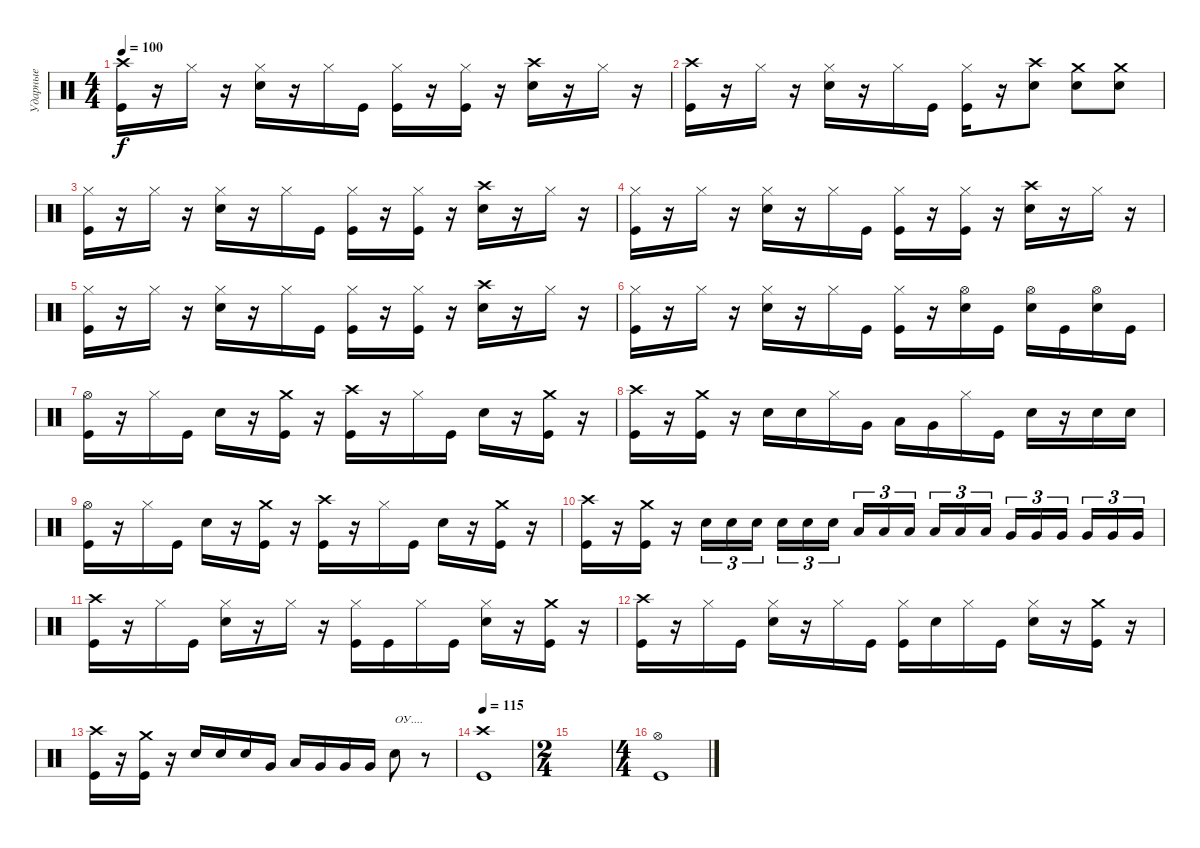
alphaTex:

\track ("Ударные" "Ударные") {instrument percussion}
\staff {score}
\articulation defaults
\ts (4 4)
\tempo 100
\clef neutral
\ks c
("Crash high (hit)" "Kick (hit)").16{dy f} r.16 "Hi-Hat (closed)".16 r.16 ("Hi-Hat (closed)" "Snare (hit) 2").16 r.16 "Hi-Hat (closed)".16 "Kick (hit)".16 ("Hi-Hat (closed)" "Kick (hit)").16 r.16 ("Hi-Hat (closed)" "Kick (hit)").16 r.16 ("Crash high (hit)" "Snare (hit) 2").16 r.16 "Hi-Hat (closed)".16 r.16 |
("Crash high (hit)" "Kick (hit)").16 r.16 "Hi-Hat (closed)".16 r.16 ("Hi-Hat (closed)" "Snare (hit) 2").16 r.16 "Hi-Hat (closed)".16 "Kick (hit)".16 ("Hi-Hat (closed)" "Kick (hit)").16 r.16 ("Crash high (hit)" "Snare (hit) 2").8 ("Crash medium (hit)" "Snare (hit) 2").8 ("Crash medium (hit)" "Snare (hit) 2").8 |
("Hi-Hat (closed)" "Kick (hit)").16 r.16 "Hi-Hat (closed)".16 r.16 ("Hi-Hat (closed)" "Snare (hit) 2").16 r.16 "Hi-Hat (closed)".16 "Kick (hit)".16 ("Hi-Hat (closed)" "Kick (hit)").16 r.16 ("Hi-Hat (closed)" "Kick (hit)").16 r.16 ("Crash high (hit)" "Snare (hit) 2").16 r.16 "Hi-Hat (closed)".16 r.16 |
("Hi-Hat (closed)" "Kick (hit)").16 r.16 "Hi-Hat (closed)".16 r.16 ("Hi-Hat (closed)" "Snare (hit) 2").16 r.16 "Hi-Hat (closed)".16 "Kick (hit)".16 ("Hi-Hat (closed)" "Kick (hit)").16 r.16 ("Hi-Hat (closed)" "Kick (hit)").16 r.16 ("Crash high (hit)" "Snare (hit) 2").16 r.16 "Hi-Hat (closed)".16 r.16 |
("Hi-Hat (closed)" "Kick (hit)").16 r.16 "Hi-Hat (closed)".16 r.16 ("Hi-Hat (closed)" "Snare (hit) 2").16 r.16 "Hi-Hat (closed)".16 "Kick (hit)".16 ("Hi-Hat (closed)" "Kick (hit)").16 r.16 ("Hi-Hat (closed)" "Kick (hit)").16 r.16 ("Crash high (hit)" "Snare (hit) 2").16 r.16 "Hi-Hat (closed)".16 r.16 |
("Hi-Hat (closed)" "Kick (hit)").16 r.16 "Hi-Hat (closed)".16 r.16 ("Hi-Hat (closed)" "Snare (hit) 2").16 r.16 "Hi-Hat (closed)".16 "Kick (hit)".16 ("Hi-Hat (closed)" "Kick (hit)").16 r.16 ("Hi-Hat (open)" "Snare (hit) 2").16 "Kick (hit)".16 ("Hi-Hat (open)" "Snare (hit) 2").16 "Kick (hit)".16 ("Hi-Hat (open)" "Snare (hit) 2").16 "Kick (hit)".16 |
("Hi-Hat (open)" "Kick (hit)").16 r.16 "Hi-Hat (closed)".16 "Kick (hit)".16 "Snare (hit) 2".16 r.16 ("Crash medium (hit)" "Kick (hit)").16 r.16 ("Crash high (hit)" "Kick (hit)").16 r.16 "Hi-Hat (closed)".16 "Kick (hit)".16 "Snare (hit) 2".16 r.16 ("Crash medium (hit)" "Kick (hit)").16 r.16 |
("Crash high (hit)" "Kick (hit)").16 r.16 ("Crash medium (hit)" "Kick (hit)").16 r.16 "Snare (hit) 2".16 "Snare (hit) 2".16 "Hi-Hat (closed)".16 "Very Low Tom (hit)".16 "Low Tom (hit)".16 "Very Low Tom (hit)".16 "Hi-Hat (closed)".16 "Kick (hit)".16 "Snare (hit) 2".16 r.16 "Snare (hit) 2".16 "Snare (hit) 2".16 |
("Hi-Hat (open)" "Kick (hit)").16 r.16 "Hi-Hat (closed)".16 "Kick (hit)".16 "Snare (hit) 2".16 r.16 ("Crash medium (hit)" "Kick (hit)").16 r.16 ("Crash high (hit)" "Kick (hit)").16 r.16 "Hi-Hat (closed)".16 "Kick (hit)".16 "Snare (hit) 2".16 r.16 ("Crash medium (hit)" "Kick (hit)").16 r.16 |
("Crash high (hit)" "Kick (hit)").16 r.16 ("Crash medium (hit)" "Kick (hit)").16 r.16 "Snare (hit) 2".16{tu (3 2)} "Snare (hit) 2".16{tu (3 2)} "Snare (hit) 2".16{tu (3 2) beam splitsecondary} "Snare (hit) 2".16{tu (3 2)} "Snare (hit) 2".16{tu (3 2)} "Snare (hit) 2".16{tu (3 2)} "Low Tom (hit)".16{tu (3 2)} "Low Tom (hit)".16{tu (3 2)} "Low Tom (hit)".16{tu (3 2) beam splitsecondary} "Low Tom (hit)".16{tu (3 2)} "Low Tom (hit)".16{tu (3 2)} "Low Tom (hit)".16{tu (3 2)} "Very Low Tom (hit)".16{tu (3 2)} "Very Low Tom (hit)".16{tu (3 2)} "Very Low Tom (hit)".16{tu (3 2) beam splitsecondary} "Very Low Tom (hit)".16{tu (3 2)} "Very Low Tom (hit)".16{tu (3 2)} "Very Low Tom (hit)".16{tu (3 2)} |
("Crash high (hit)" "Kick (hit)").16 r.16 "Hi-Hat (closed)".16 "Kick (hit)".16 ("Hi-Hat (closed)" "Snare (hit) 2").16 r.16 "Hi-Hat (closed)".16 r.16 ("Hi-Hat (closed)" "Kick (hit)").16 "Kick (hit)".16 "Hi-Hat (closed)".16 "Kick (hit)".16 ("Hi-Hat (closed)" "Snare (hit) 2").16 r.16 ("Crash medium (hit)" "Kick (hit)").16 r.16 |
("Crash high (hit)" "Kick (hit)").16 r.16 "Hi-Hat (closed)".16 "Kick (hit)".16 ("Hi-Hat (closed)" "Snare (hit) 2").16 r.16 "Hi-Hat (closed)".16 "Kick (hit)".16 ("Hi-Hat (closed)" "Kick (hit)").16 "Snare (hit) 2".16 "Hi-Hat (closed)".16 "Kick (hit)".16 ("Hi-Hat (closed)" "Snare (hit) 2").16 r.16 ("Crash medium (hit)" "Kick (hit)").16 r.16 |
("Crash high (hit)" "Kick (hit)").16 r.16 ("Crash medium (hit)" "Kick (hit)").16 r.16 "Snare (hit) 2".16 "Snare (hit) 2".16 "Snare (hit) 2".16 "Very Low Tom (hit)".16 "Low Tom (hit)".16 "Very Low Tom (hit)".16 "Very Low Tom (hit)".16 "Very Low Tom (hit)".16 "Snare (hit) 2".8{txt "ОУ...."} r.8 |
\tempo 115
("Crash high (hit)" "Kick (hit)").1 |
\ts (2 4)
|
\ts (4 4)
("Hi-Hat (open)" "Kick (hit)").1
